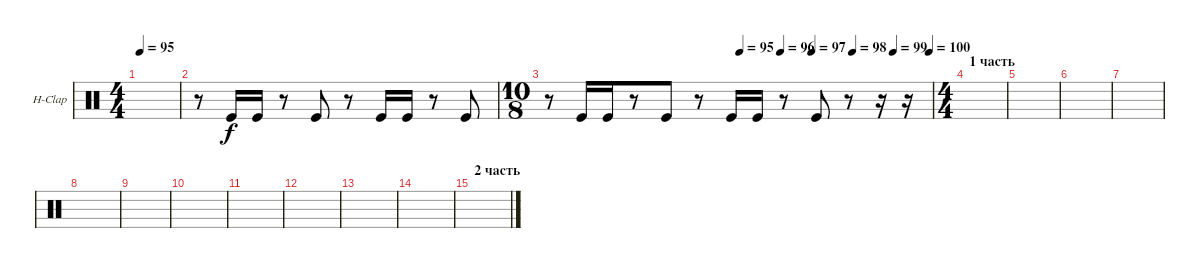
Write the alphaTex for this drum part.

\defaultSystemsLayout 4
\bracketExtendMode groupsimilarinstruments
\firstSystemTrackNameOrientation horizontal
\otherSystemsTrackNameOrientation horizontal
\track ("Hand Clap" "H-Clap") {instrument percussion}
\staff {score}
\articulation defaults
\ts (4 4)
\tempo 95
\clef neutral
\ks c
|
r.8 "Kick (hit)".16 "Kick (hit)".16 r.8 "Kick (hit)".8 r.8 "Kick (hit)".16 "Kick (hit)".16 r.8 "Kick (hit)".8 |
\ts (10 8)
\tempo (95 0.5)
\tempo (96 0.60625)
\tempo (97 0.6875)
\tempo (98 0.79375)
\tempo (99 0.9)
\tempo (100 0.99375)
\scale
0.5 r.8 "Kick (hit)".16 "Kick (hit)".16 r.8 "Kick (hit)".8 r.8 "Kick (hit)".16 "Kick (hit)".16 r.8 "Kick (hit)".8 r.8 r.16 r.16 |
\ts (4 4)
\section ("" "1 часть")
\scale
0.5 |
\scale
0.5 |
\scale
0.5 |
\scale
0.5 |
\scale
0.5 |
\scale
0.5 |
\scale
0.5 |
\scale
0.5 |
\scale
0.5 |
\scale
0.5 |
|
\section ("" "2 часть")
\scale
0.5 |
\scale
0.5
